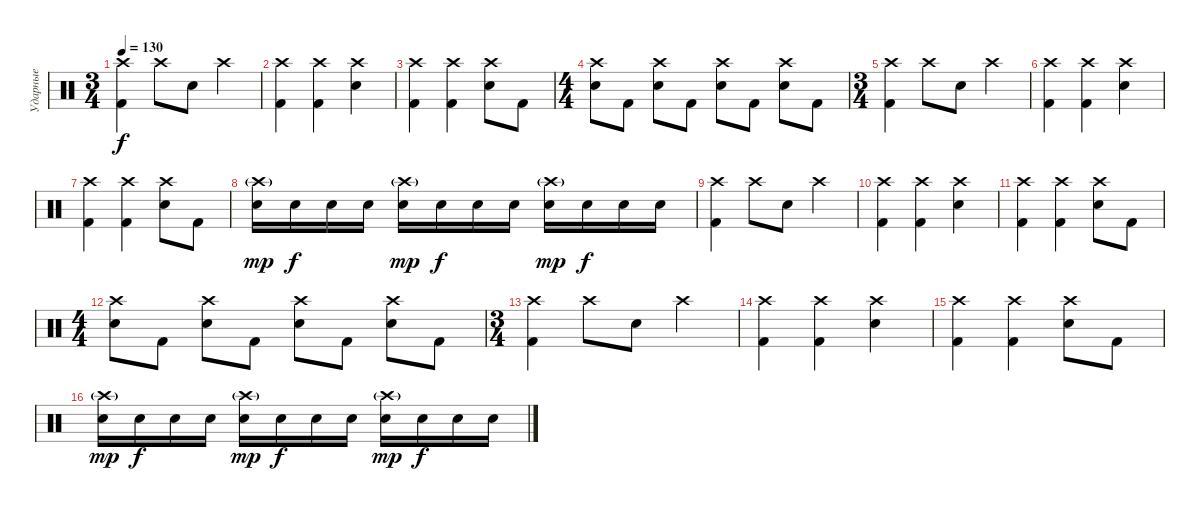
\track ("Ударные" "Ударные") {instrument percussion}
\staff {score}
\articulation defaults
\ts (3 4)
\tempo 130
\clef neutral
\ks c
("Crash high (hit)" "Kick (hit) 2").4{dy f} "Crash high (hit)".8 "Electric Snare (hit)".8 "Crash high (hit)".4 |
("Crash high (hit)" "Kick (hit) 2").4 ("Crash high (hit)" "Kick (hit) 2").4 ("Crash high (hit)" "Electric Snare (hit)").4 |
("Crash high (hit)" "Kick (hit) 2").4 ("Crash high (hit)" "Kick (hit) 2").4 ("Crash high (hit)" "Electric Snare (hit)").8 "Kick (hit) 2".8 |
\ts (4 4)
("Crash high (hit)" "Electric Snare (hit)").8 "Kick (hit) 2".8 ("Crash high (hit)" "Electric Snare (hit)").8 "Kick (hit) 2".8 ("Crash high (hit)" "Electric Snare (hit)").8 "Kick (hit) 2".8 ("Crash high (hit)" "Electric Snare (hit)").8 "Kick (hit) 2".8 |
\ts (3 4)
("Crash high (hit)" "Kick (hit) 2").4 "Crash high (hit)".8 "Electric Snare (hit)".8 "Crash high (hit)".4 |
("Crash high (hit)" "Kick (hit) 2").4 ("Crash high (hit)" "Kick (hit) 2").4 ("Crash high (hit)" "Electric Snare (hit)").4 |
("Crash high (hit)" "Kick (hit) 2").4 ("Crash high (hit)" "Kick (hit) 2").4 ("Crash high (hit)" "Electric Snare (hit)").8 "Kick (hit) 2".8 |
("Crash high (hit)"{g} "Electric Snare (hit)").16{dy mp} "Electric Snare (hit)".16{dy f} "Electric Snare (hit)".16 "Electric Snare (hit)".16 ("Crash high (hit)"{g} "Electric Snare (hit)").16{dy mp} "Electric Snare (hit)".16{dy f} "Electric Snare (hit)".16 "Electric Snare (hit)".16 ("Crash high (hit)"{g} "Electric Snare (hit)").16{dy mp} "Electric Snare (hit)".16{dy f} "Electric Snare (hit)".16 "Electric Snare (hit)".16 |
("Crash high (hit)" "Kick (hit) 2").4 "Crash high (hit)".8 "Electric Snare (hit)".8 "Crash high (hit)".4 |
("Crash high (hit)" "Kick (hit) 2").4 ("Crash high (hit)" "Kick (hit) 2").4 ("Crash high (hit)" "Electric Snare (hit)").4 |
("Crash high (hit)" "Kick (hit) 2").4 ("Crash high (hit)" "Kick (hit) 2").4 ("Crash high (hit)" "Electric Snare (hit)").8 "Kick (hit) 2".8 |
\ts (4 4)
("Crash high (hit)" "Electric Snare (hit)").8 "Kick (hit) 2".8 ("Crash high (hit)" "Electric Snare (hit)").8 "Kick (hit) 2".8 ("Crash high (hit)" "Electric Snare (hit)").8 "Kick (hit) 2".8 ("Crash high (hit)" "Electric Snare (hit)").8 "Kick (hit) 2".8 |
\ts (3 4)
("Crash high (hit)" "Kick (hit) 2").4 "Crash high (hit)".8 "Electric Snare (hit)".8 "Crash high (hit)".4 |
("Crash high (hit)" "Kick (hit) 2").4 ("Crash high (hit)" "Kick (hit) 2").4 ("Crash high (hit)" "Electric Snare (hit)").4 |
("Crash high (hit)" "Kick (hit) 2").4 ("Crash high (hit)" "Kick (hit) 2").4 ("Crash high (hit)" "Electric Snare (hit)").8 "Kick (hit) 2".8 |
("Crash high (hit)"{g} "Electric Snare (hit)").16{dy mp} "Electric Snare (hit)".16{dy f} "Electric Snare (hit)".16 "Electric Snare (hit)".16 ("Crash high (hit)"{g} "Electric Snare (hit)").16{dy mp} "Electric Snare (hit)".16{dy f} "Electric Snare (hit)".16 "Electric Snare (hit)".16 ("Crash high (hit)"{g} "Electric Snare (hit)").16{dy mp} "Electric Snare (hit)".16{dy f} "Electric Snare (hit)".16 "Electric Snare (hit)".16
